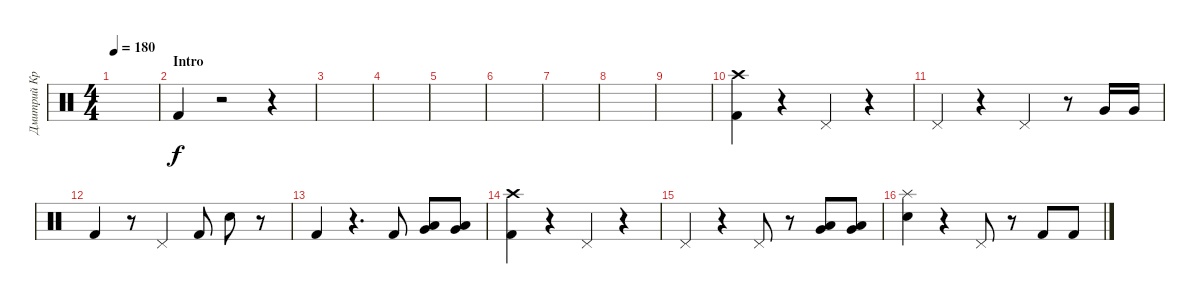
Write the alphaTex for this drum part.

\track ("Дмитрий Кривенков" "Дмитрий Кр") {instrument percussion}
\staff {score}
\articulation defaults
\ts (4 4)
\tempo 180
\clef neutral
\ks c
|
\section ("" "Intro")
"Kick (hit) 2".4 r.2 r.4 |
|
|
|
|
|
|
|
("Kick (hit) 2" "Crash high (hit)").4 r.4 "Pedal Hi-Hat (hit)".4 r.4 |
"Pedal Hi-Hat (hit)".4 r.4 "Pedal Hi-Hat (hit)".4 r.8 "Very Low Tom (hit)".16 "Very Low Tom (hit)".16 |
"Kick (hit) 2".4 r.8 "Pedal Hi-Hat (hit)".4 "Kick (hit) 2".8 "Electric Snare (hit)".8 r.8 |
"Kick (hit) 2".4 r.4{d} "Kick (hit) 2".8 ("Very Low Tom (hit)" "Low Tom (hit)").8 ("Very Low Tom (hit)" "Low Tom (hit)").8 |
("Kick (hit) 2" "Crash high (hit)").4 r.4 "Pedal Hi-Hat (hit)".4 r.4 |
"Pedal Hi-Hat (hit)".4 r.4 "Pedal Hi-Hat (hit)".8 r.8 ("Low Tom (hit)" "Very Low Tom (hit)").8 ("Low Tom (hit)" "Very Low Tom (hit)").8 |
("Splash (hit)" "Electric Snare (hit)").4 r.4 "Pedal Hi-Hat (hit)".8 r.8 "Kick (hit) 2".8 "Kick (hit) 2".8
